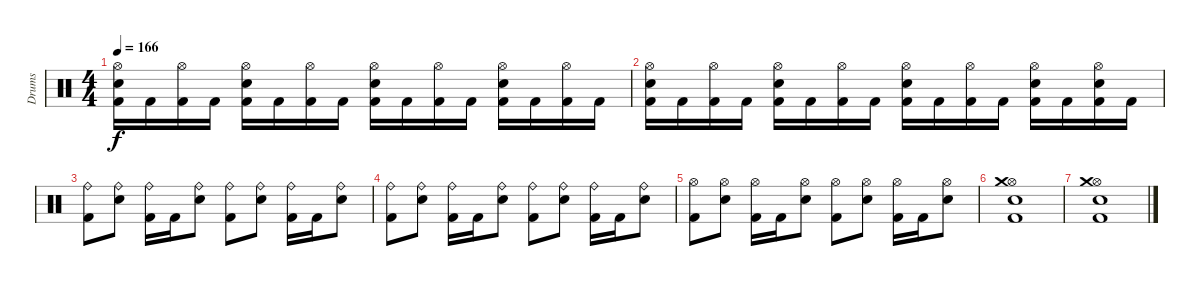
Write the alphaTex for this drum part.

\track ("Drums" "Drums") {instrument percussion}
\staff {score}
\articulation defaults
\ts (4 4)
\tempo 166
\clef neutral
\ks c
("Kick (hit) 2" "Snare (hit) 2" "Hi-Hat (open)").16{dy f} "Kick (hit) 2".16 ("Kick (hit) 2" "Hi-Hat (open)").16 "Kick (hit) 2".16 ("Kick (hit) 2" "Snare (hit) 2" "Hi-Hat (open)").16 "Kick (hit) 2".16 ("Kick (hit) 2" "Hi-Hat (open)").16 "Kick (hit) 2".16 ("Kick (hit) 2" "Snare (hit) 2" "Hi-Hat (open)").16 "Kick (hit) 2".16 ("Kick (hit) 2" "Hi-Hat (open)").16 "Kick (hit) 2".16 ("Kick (hit) 2" "Snare (hit) 2" "Hi-Hat (open)").16 "Kick (hit) 2".16 ("Kick (hit) 2" "Hi-Hat (open)").16 "Kick (hit) 2".16 |
("Kick (hit) 2" "Snare (hit) 2" "Hi-Hat (open)").16 "Kick (hit) 2".16 ("Kick (hit) 2" "Hi-Hat (open)").16 "Kick (hit) 2".16 ("Kick (hit) 2" "Snare (hit) 2" "Hi-Hat (open)").16 "Kick (hit) 2".16 ("Kick (hit) 2" "Hi-Hat (open)").16 "Kick (hit) 2".16 ("Kick (hit) 2" "Snare (hit) 2" "Hi-Hat (open)").16 "Kick (hit) 2".16 ("Kick (hit) 2" "Hi-Hat (open)").16 "Kick (hit) 2".16 ("Kick (hit) 2" "Snare (hit) 2" "Hi-Hat (open)").16 "Kick (hit) 2".16 ("Kick (hit) 2" "Snare (hit) 2" "Hi-Hat (open)").16 "Kick (hit) 2".16 |
("Kick (hit) 2" "Ride (bell)").8 ("Snare (hit) 2" "Ride (bell)").8 ("Kick (hit) 2" "Ride (bell)").16 "Kick (hit) 2".16 ("Snare (hit) 2" "Ride (bell)").8 ("Kick (hit) 2" "Ride (bell)").8 ("Snare (hit) 2" "Ride (bell)").8 ("Kick (hit) 2" "Ride (bell)").16 "Kick (hit) 2".16 ("Snare (hit) 2" "Ride (bell)").8 |
("Kick (hit) 2" "Ride (bell)").8 ("Snare (hit) 2" "Ride (bell)").8 ("Kick (hit) 2" "Ride (bell)").16 "Kick (hit) 2".16 ("Snare (hit) 2" "Ride (bell)").8 ("Kick (hit) 2" "Ride (bell)").8 ("Snare (hit) 2" "Ride (bell)").8 ("Kick (hit) 2" "Ride (bell)").16 "Kick (hit) 2".16 ("Snare (hit) 2" "Ride (bell)").8 |
("Kick (hit) 2" "Hi-Hat (open)").8 ("Snare (hit) 2" "Hi-Hat (open)").8 ("Kick (hit) 2" "Hi-Hat (open)").16 "Kick (hit) 2".16 ("Snare (hit) 2" "Hi-Hat (open)").8 ("Kick (hit) 2" "Hi-Hat (open)").8 ("Snare (hit) 2" "Hi-Hat (open)").8 ("Kick (hit) 2" "Hi-Hat (open)").16 "Kick (hit) 2".16 ("Snare (hit) 2" "Hi-Hat (open)").8 |
("Kick (hit) 2" "Snare (hit) 2" "Hi-Hat (open)" "Crash medium (hit)").1 |
("Kick (hit) 2" "Snare (hit) 2" "Hi-Hat (open)" "Crash medium (hit)").1
